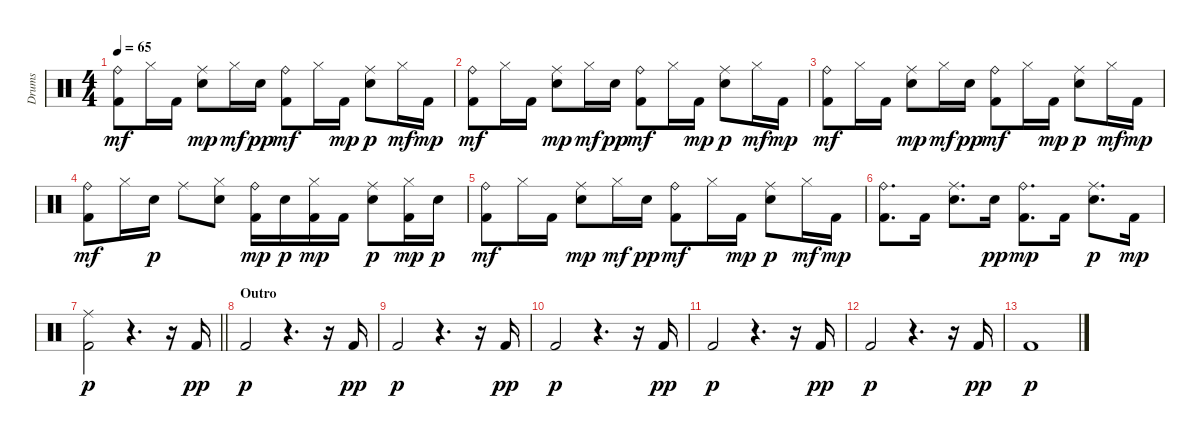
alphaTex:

\track ("Drums" "Drums") {instrument percussion}
\staff {score}
\articulation defaults
\ts (4 4)
\tempo 65
\clef neutral
\ks c
("Ride (bell)" "Kick (hit) 2").8{dy mf} "Hi-Hat (closed)".16 "Kick (hit) 2".16 ("Ride (middle)" "Electric Snare (hit)").8{dy mp} "Hi-Hat (closed)".16{dy mf} "Electric Snare (hit)".16{dy pp} ("Ride (bell)" "Kick (hit) 2").8{dy mf} "Hi-Hat (closed)".16 "Kick (hit) 2".16{dy mp} ("Ride (middle)" "Electric Snare (hit)").8{dy p} "Hi-Hat (closed)".16{dy mf} "Kick (hit) 2".16{dy mp} |
("Ride (bell)" "Kick (hit) 2").8{dy mf} "Hi-Hat (closed)".16 "Kick (hit) 2".16 ("Ride (middle)" "Electric Snare (hit)").8{dy mp} "Hi-Hat (closed)".16{dy mf} "Electric Snare (hit)".16{dy pp} ("Ride (bell)" "Kick (hit) 2").8{dy mf} "Hi-Hat (closed)".16 "Kick (hit) 2".16{dy mp} ("Ride (middle)" "Electric Snare (hit)").8{dy p} "Hi-Hat (closed)".16{dy mf} "Kick (hit) 2".16{dy mp} |
("Ride (bell)" "Kick (hit) 2").8{dy mf} "Hi-Hat (closed)".16 "Kick (hit) 2".16 ("Ride (middle)" "Electric Snare (hit)").8{dy mp} "Hi-Hat (closed)".16{dy mf} "Electric Snare (hit)".16{dy pp} ("Ride (bell)" "Kick (hit) 2").8{dy mf} "Hi-Hat (closed)".16 "Kick (hit) 2".16{dy mp} ("Ride (middle)" "Electric Snare (hit)").8{dy p} "Hi-Hat (closed)".16{dy mf} "Kick (hit) 2".16{dy mp} |
("Ride (bell)" "Kick (hit) 2").8{dy mf} "Hi-Hat (closed)".16 "Electric Snare (hit)".16{dy p} "Ride (middle)".8 ("Hi-Hat (closed)" "Electric Snare (hit)").8 ("Ride (bell)" "Kick (hit) 2").16{dy mp} "Electric Snare (hit)".16{dy p} ("Hi-Hat (closed)" "Kick (hit) 2").16{dy mp} "Kick (hit) 2".16 ("Ride (middle)" "Electric Snare (hit)").8{dy p} ("Hi-Hat (closed)" "Kick (hit) 2").16{dy mp} "Electric Snare (hit)".16{dy p} |
("Ride (bell)" "Kick (hit) 2").8{dy mf} "Hi-Hat (closed)".16 "Kick (hit) 2".16 ("Ride (middle)" "Electric Snare (hit)").8{dy mp} "Hi-Hat (closed)".16{dy mf} "Electric Snare (hit)".16{dy pp} ("Ride (bell)" "Kick (hit) 2").8{dy mf} "Hi-Hat (closed)".16 "Kick (hit) 2".16{dy mp} ("Ride (middle)" "Electric Snare (hit)").8{dy p} "Hi-Hat (closed)".16{dy mf} "Kick (hit) 2".16{dy mp} |
("Ride (bell)" "Kick (hit) 2").8{d} "Kick (hit) 2".16 ("Ride (middle)" "Electric Snare (hit)").8{d} "Electric Snare (hit)".16{dy pp} ("Ride (bell)" "Kick (hit) 2").8{d dy mp} "Kick (hit) 2".16 ("Ride (middle)" "Electric Snare (hit)").8{d dy p} "Kick (hit) 2".16{dy mp} |
\barLineRight lightlight
("Ride (middle)" "Kick (hit) 2").2{dy p} r.4{d} r.16 "Kick (hit) 2".16{dy pp} |
\section ("" "Outro")
"Kick (hit) 2".2{dy p} r.4{d} r.16 "Kick (hit) 2".16{dy pp} |
"Kick (hit) 2".2{dy p} r.4{d} r.16 "Kick (hit) 2".16{dy pp} |
"Kick (hit) 2".2{dy p} r.4{d} r.16 "Kick (hit) 2".16{dy pp} |
"Kick (hit) 2".2{dy p} r.4{d} r.16 "Kick (hit) 2".16{dy pp} |
"Kick (hit) 2".2{dy p} r.4{d} r.16 "Kick (hit) 2".16{dy pp} |
"Kick (hit) 2".1{dy p}
